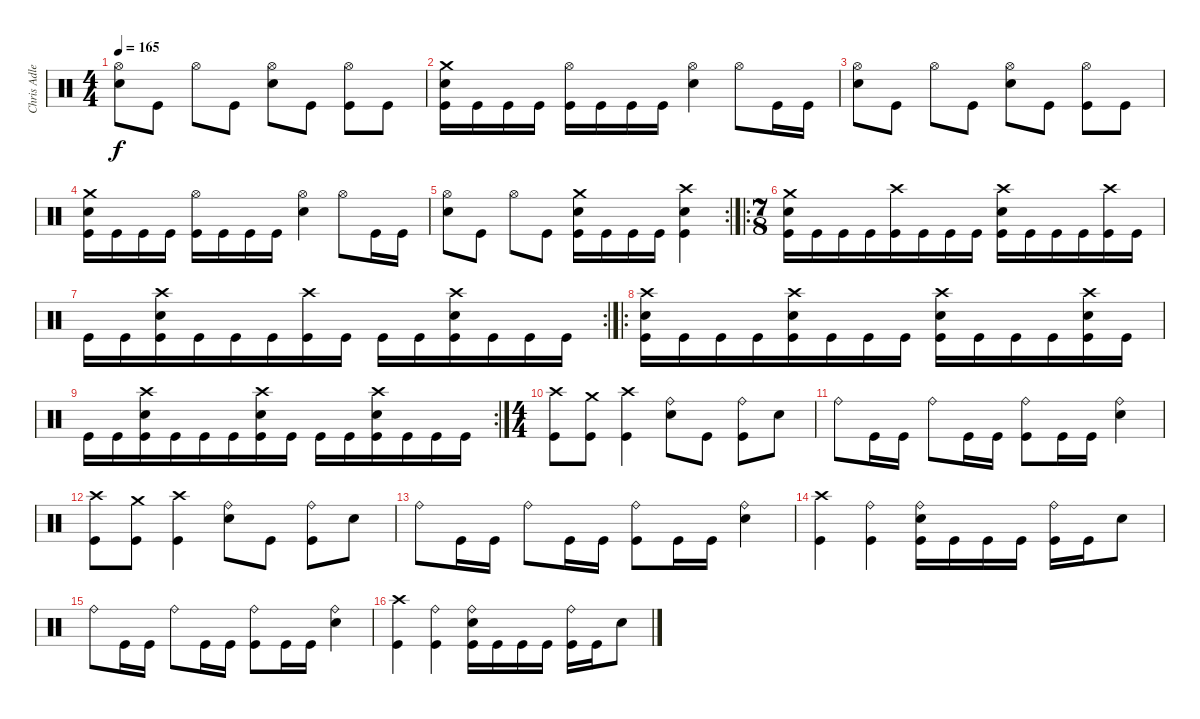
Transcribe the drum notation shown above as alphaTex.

\track ("Chris Adler" "Chris Adle") {instrument percussion}
\staff {score}
\articulation defaults
\ts (4 4)
\tempo 165
\clef neutral
\ks c
("Hi-Hat (open)" "Electric Snare (hit)").8{dy f} "Kick (hit)".8 "Hi-Hat (open)".8 "Kick (hit)".8 ("Hi-Hat (open)" "Electric Snare (hit)").8 "Kick (hit)".8 ("Hi-Hat (open)" "Kick (hit)").8 "Kick (hit)".8 |
("Crash medium (hit)" "Electric Snare (hit)" "Kick (hit)").16 "Kick (hit)".16 "Kick (hit)".16 "Kick (hit)".16 ("Hi-Hat (open)" "Kick (hit)").16 "Kick (hit)".16 "Kick (hit)".16 "Kick (hit)".16 ("Hi-Hat (open)" "Electric Snare (hit)").4 "Hi-Hat (open)".8 "Kick (hit)".16 "Kick (hit)".16 |
("Hi-Hat (open)" "Electric Snare (hit)").8 "Kick (hit)".8 "Hi-Hat (open)".8 "Kick (hit)".8 ("Hi-Hat (open)" "Electric Snare (hit)").8 "Kick (hit)".8 ("Hi-Hat (open)" "Kick (hit)").8 "Kick (hit)".8 |
("Crash medium (hit)" "Electric Snare (hit)" "Kick (hit)").16 "Kick (hit)".16 "Kick (hit)".16 "Kick (hit)".16 ("Hi-Hat (open)" "Kick (hit)").16 "Kick (hit)".16 "Kick (hit)".16 "Kick (hit)".16 ("Hi-Hat (open)" "Electric Snare (hit)").4 "Hi-Hat (open)".8 "Kick (hit)".16 "Kick (hit)".16 |
\rc 2
("Hi-Hat (open)" "Electric Snare (hit)").8 "Kick (hit)".8 "Hi-Hat (open)".8 "Kick (hit)".8 ("Crash medium (hit)" "Electric Snare (hit)" "Kick (hit)").16 "Kick (hit)".16 "Kick (hit)".16 "Kick (hit)".16 ("Crash high (hit)" "Electric Snare (hit)" "Kick (hit)").4 |
\ro
\ts (7 8)
("Crash medium (hit)" "Electric Snare (hit)" "Kick (hit)").16 "Kick (hit)".16 "Kick (hit)".16 "Kick (hit)".16 ("Crash high (hit)" "Kick (hit)").16 "Kick (hit)".16 "Kick (hit)".16 "Kick (hit)".16 ("Crash high (hit)" "Electric Snare (hit)" "Kick (hit)").16 "Kick (hit)".16 "Kick (hit)".16 "Kick (hit)".16 ("Crash high (hit)" "Kick (hit)").16 "Kick (hit)".16 |
\rc 2 "Kick (hit)".16 "Kick (hit)".16
("Crash high (hit)" "Electric Snare (hit)" "Kick (hit)").16 "Kick (hit)".16 "Kick (hit)".16 "Kick (hit)".16 ("Crash high (hit)" "Kick (hit)").16 "Kick (hit)".16 "Kick (hit)".16 "Kick (hit)".16 ("Crash high (hit)" "Electric Snare (hit)" "Kick (hit)").16 "Kick (hit)".16 "Kick (hit)".16 "Kick (hit)".16 |
\ro
("Crash high (hit)" "Electric Snare (hit)" "Kick (hit)").16 "Kick (hit)".16 "Kick (hit)".16 "Kick (hit)".16 ("Crash high (hit)" "Electric Snare (hit)" "Kick (hit)").16 "Kick (hit)".16 "Kick (hit)".16 "Kick (hit)".16 ("Crash high (hit)" "Electric Snare (hit)" "Kick (hit)").16 "Kick (hit)".16 "Kick (hit)".16 "Kick (hit)".16 ("Crash high (hit)" "Electric Snare (hit)" "Kick (hit)").16 "Kick (hit)".16 |
\rc 2 "Kick (hit)".16 "Kick (hit)".16
("Crash high (hit)" "Electric Snare (hit)" "Kick (hit)").16 "Kick (hit)".16 "Kick (hit)".16 "Kick (hit)".16 ("Crash high (hit)" "Electric Snare (hit)" "Kick (hit)").16 "Kick (hit)".16 "Kick (hit)".16 "Kick (hit)".16 ("Crash high (hit)" "Electric Snare (hit)" "Kick (hit)").16 "Kick (hit)".16 "Kick (hit)".16 "Kick (hit)".16 |
\ts (4 4)
("Crash high (hit)" "Kick (hit)").8 ("Crash medium (hit)" "Kick (hit)").8 ("Crash high (hit)" "Kick (hit)").4 ("Ride (bell)" "Electric Snare (hit)").8 "Kick (hit)".8 ("Ride (bell)" "Kick (hit)").8 "Electric Snare (hit)".8 |
"Ride (bell)".8 "Kick (hit)".16 "Kick (hit)".16 "Ride (bell)".8 "Kick (hit)".16 "Kick (hit)".16 ("Ride (bell)" "Kick (hit)").8 "Kick (hit)".16 "Kick (hit)".16 ("Ride (bell)" "Electric Snare (hit)").4 |
("Crash high (hit)" "Kick (hit)").8 ("Crash medium (hit)" "Kick (hit)").8 ("Crash high (hit)" "Kick (hit)").4 ("Ride (bell)" "Electric Snare (hit)").8 "Kick (hit)".8 ("Ride (bell)" "Kick (hit)").8 "Electric Snare (hit)".8 |
"Ride (bell)".8 "Kick (hit)".16 "Kick (hit)".16 "Ride (bell)".8 "Kick (hit)".16 "Kick (hit)".16 ("Ride (bell)" "Kick (hit)").8 "Kick (hit)".16 "Kick (hit)".16 ("Ride (bell)" "Electric Snare (hit)").4 |
("Crash high (hit)" "Kick (hit)").4 ("Ride (bell)" "Kick (hit)").4 ("Ride (bell)" "Electric Snare (hit)" "Kick (hit)").16 "Kick (hit)".16 "Kick (hit)".16 "Kick (hit)".16 ("Ride (bell)" "Kick (hit)").16 "Kick (hit)".16 "Electric Snare (hit)".8 |
"Ride (bell)".8 "Kick (hit)".16 "Kick (hit)".16 "Ride (bell)".8 "Kick (hit)".16 "Kick (hit)".16 ("Ride (bell)" "Kick (hit)").8 "Kick (hit)".16 "Kick (hit)".16 ("Ride (bell)" "Electric Snare (hit)").4 |
("Crash high (hit)" "Kick (hit)").4 ("Ride (bell)" "Kick (hit)").4 ("Ride (bell)" "Electric Snare (hit)" "Kick (hit)").16 "Kick (hit)".16 "Kick (hit)".16 "Kick (hit)".16 ("Ride (bell)" "Kick (hit)").16 "Kick (hit)".16 "Electric Snare (hit)".8
